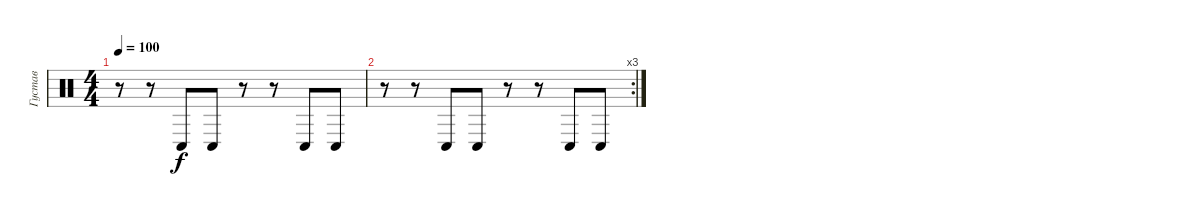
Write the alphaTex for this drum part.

\track ("Густав" "Густав") {instrument percussion}
\staff {score}
\articulation defaults
\ts (4 4)
\tempo 100
\clef neutral
\ks c
r.8{dy f} r.8 "Conga low (hit)".8 "Conga low (hit)".8 r.8 r.8 "Conga low (hit)".8 "Conga low (hit)".8 |
\rc 3
r.8 r.8 "Conga low (hit)".8 "Conga low (hit)".8 r.8 r.8 "Conga low (hit)".8 "Conga low (hit)".8
